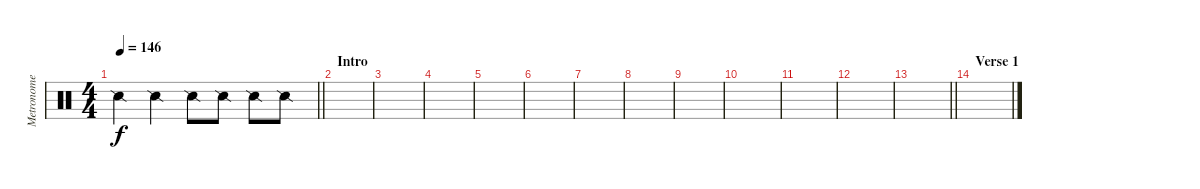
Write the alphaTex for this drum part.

\track ("Metronome" "Metronome") {instrument percussion}
\staff {score}
\articulation defaults
\ts (4 4)
\tempo 146
\clef neutral
\barLineRight lightlight
\ks c "Snare (side stick) 2".4{dy f} "Snare (side stick) 2".4 "Snare (side stick) 2".8 "Snare (side stick) 2".8 "Snare (side stick) 2".8 "Snare (side stick) 2".8
|
\section ("" "Intro")
|
|
|
|
|
|
|
|
|
|
|
\barLineRight lightlight
|
\section ("" "Verse 1")
